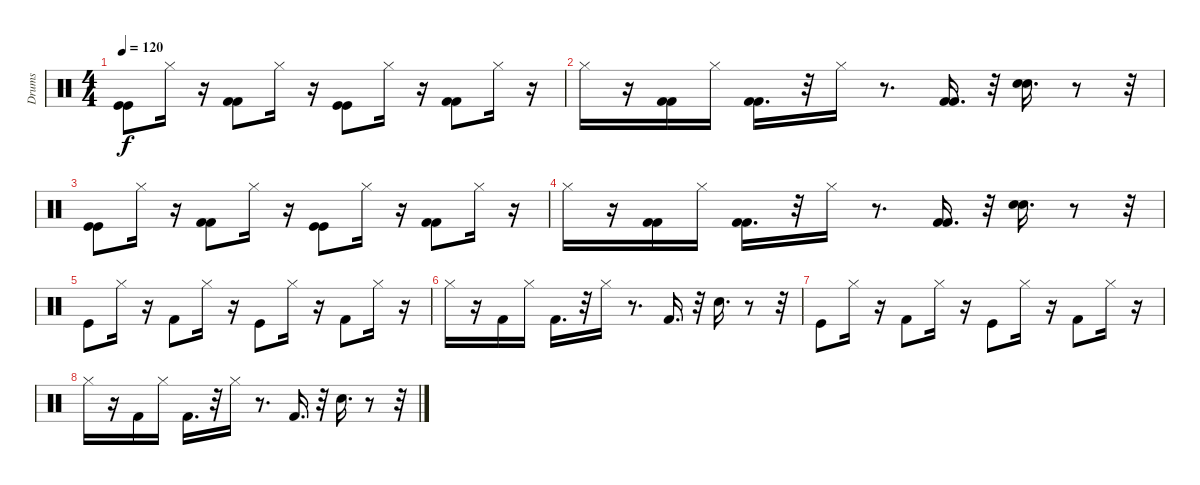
\track ("Drums" "Drums") {instrument percussion}
\staff {score}
\articulation defaults
\ts (4 4)
\tempo 120
\clef neutral
\ks c
("Kick (hit)" "Kick (hit)").8{dy f} "Hi-Hat (closed)".16 r.16 ("Kick (hit) 2" "Kick (hit) 2").8 "Hi-Hat (closed)".16 r.16 ("Kick (hit)" "Kick (hit)").8 "Hi-Hat (closed)".16 r.16 ("Kick (hit) 2" "Kick (hit) 2").8 "Hi-Hat (closed)".16 r.16 |
"Hi-Hat (closed)".16 r.16 ("Kick (hit) 2" "Kick (hit) 2").16 "Hi-Hat (closed)".16 ("Kick (hit) 2" "Kick (hit) 2").16{d} r.32 "Hi-Hat (closed)".16 r.8{d} ("Kick (hit) 2" "Kick (hit) 2").16{d} r.32 ("Electric Snare (hit)" "Electric Snare (hit)").16{d} r.8 r.32 |
("Kick (hit)" "Kick (hit)").8 "Hi-Hat (closed)".16 r.16 ("Kick (hit) 2" "Kick (hit) 2").8 "Hi-Hat (closed)".16 r.16 ("Kick (hit)" "Kick (hit)").8 "Hi-Hat (closed)".16 r.16 ("Kick (hit) 2" "Kick (hit) 2").8 "Hi-Hat (closed)".16 r.16 |
"Hi-Hat (closed)".16 r.16 ("Kick (hit) 2" "Kick (hit) 2").16 "Hi-Hat (closed)".16 ("Kick (hit) 2" "Kick (hit) 2").16{d} r.32 "Hi-Hat (closed)".16 r.8{d} ("Kick (hit) 2" "Kick (hit) 2").16{d} r.32 ("Electric Snare (hit)" "Electric Snare (hit)").16{d} r.8 r.32 |
"Kick (hit)".8 "Hi-Hat (closed)".16 r.16 "Kick (hit) 2".8 "Hi-Hat (closed)".16 r.16 "Kick (hit)".8 "Hi-Hat (closed)".16 r.16 "Kick (hit) 2".8 "Hi-Hat (closed)".16 r.16 |
"Hi-Hat (closed)".16 r.16 "Kick (hit) 2".16 "Hi-Hat (closed)".16 "Kick (hit) 2".16{d} r.32 "Hi-Hat (closed)".16 r.8{d} "Kick (hit) 2".16{d} r.32 "Electric Snare (hit)".16{d} r.8 r.32 |
"Kick (hit)".8 "Hi-Hat (closed)".16 r.16 "Kick (hit) 2".8 "Hi-Hat (closed)".16 r.16 "Kick (hit)".8 "Hi-Hat (closed)".16 r.16 "Kick (hit) 2".8 "Hi-Hat (closed)".16 r.16 |
"Hi-Hat (closed)".16 r.16 "Kick (hit) 2".16 "Hi-Hat (closed)".16 "Kick (hit) 2".16{d} r.32 "Hi-Hat (closed)".16 r.8{d} "Kick (hit) 2".16{d} r.32 "Electric Snare (hit)".16{d} r.8 r.32
